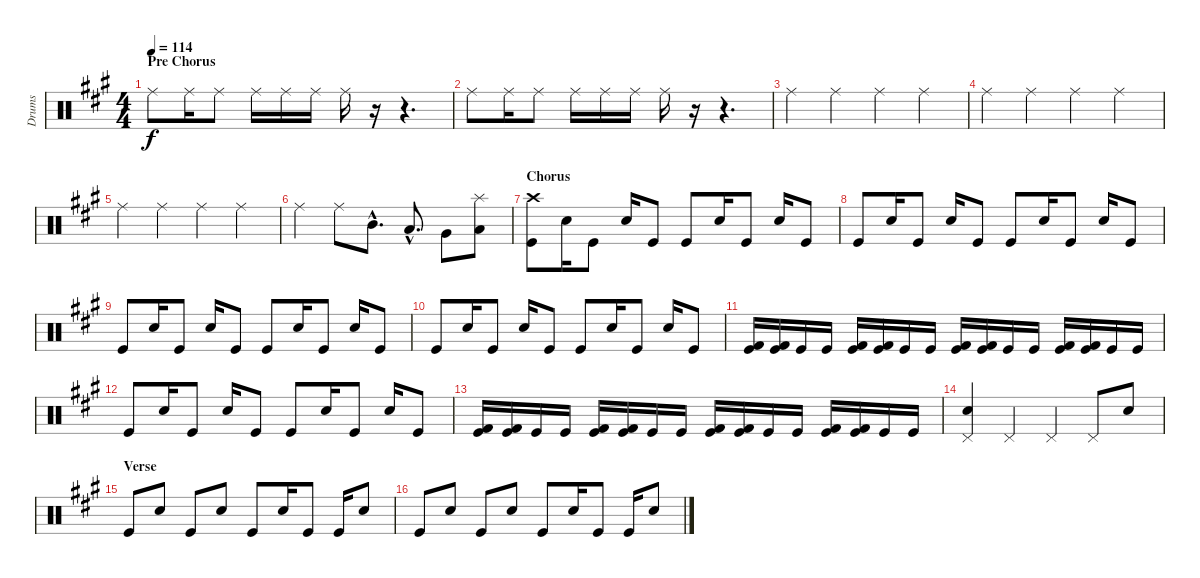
\track ("Drums" "Drums") {instrument percussion}
\staff {score}
\articulation defaults
\ts (4 4)
\section ("" "Pre Chorus")
\tempo 114
\clef neutral
\ks a "Ride (middle)".8{dy f balance 1} "Ride (middle)".16 "Ride (middle)".8 "Ride (middle)".16 "Ride (middle)".16 "Ride (middle)".16 "Ride (middle)".16
r.16 r.4{d} |
"Ride (middle)".8{balance 1} "Ride (middle)".16 "Ride (middle)".8 "Ride (middle)".16 "Ride (middle)".16 "Ride (middle)".16 "Ride (middle)".16 r.16 r.4{d} |
"Ride (middle)".4{balance 8} "Ride (middle)".4 "Ride (middle)".4 "Ride (middle)".4 |
"Ride (middle)".4 "Ride (middle)".4 "Ride (middle)".4 "Ride (middle)".4 |
"Ride (middle)".4 "Ride (middle)".4 "Ride (middle)".4 "Ride (middle)".4 |
"Ride (middle)".4 "Ride (middle)".8 "Mid Tom (hit)"{hac}.8{d} "Low Tom (hit)"{hac}.8{d} "Very Low Tom (hit)".8 ("Splash (hit)" "Low Floor Tom (hit)").8 |
\section ("" "Chorus")
("Crash high (hit)" "Kick (hit)").8 "Electric Snare (hit)".16 "Kick (hit)".8 "Electric Snare (hit)".16 "Kick (hit)".8 "Kick (hit)".8 "Electric Snare (hit)".16 "Kick (hit)".8 "Electric Snare (hit)".16 "Kick (hit)".8 |
"Kick (hit)".8 "Electric Snare (hit)".16 "Kick (hit)".8 "Electric Snare (hit)".16 "Kick (hit)".8 "Kick (hit)".8 "Electric Snare (hit)".16 "Kick (hit)".8 "Electric Snare (hit)".16 "Kick (hit)".8 |
"Kick (hit)".8 "Electric Snare (hit)".16 "Kick (hit)".8 "Electric Snare (hit)".16 "Kick (hit)".8 "Kick (hit)".8 "Electric Snare (hit)".16 "Kick (hit)".8 "Electric Snare (hit)".16 "Kick (hit)".8 |
"Kick (hit)".8 "Electric Snare (hit)".16 "Kick (hit)".8 "Electric Snare (hit)".16 "Kick (hit)".8 "Kick (hit)".8 "Electric Snare (hit)".16 "Kick (hit)".8 "Electric Snare (hit)".16 "Kick (hit)".8 |
("Kick (hit) 2" "Kick (hit)").16 ("Kick (hit) 2" "Kick (hit)").16 "Kick (hit)".16 "Kick (hit)".16 ("Kick (hit) 2" "Kick (hit)").16 ("Kick (hit) 2" "Kick (hit)").16 "Kick (hit)".16 "Kick (hit)".16 ("Kick (hit) 2" "Kick (hit)").16 ("Kick (hit) 2" "Kick (hit)").16 "Kick (hit)".16 "Kick (hit)".16 ("Kick (hit) 2" "Kick (hit)").16 ("Kick (hit) 2" "Kick (hit)").16 "Kick (hit)".16 "Kick (hit)".16 |
"Kick (hit)".8 "Electric Snare (hit)".16 "Kick (hit)".8 "Electric Snare (hit)".16 "Kick (hit)".8 "Kick (hit)".8 "Electric Snare (hit)".16 "Kick (hit)".8 "Electric Snare (hit)".16 "Kick (hit)".8 |
("Kick (hit) 2" "Kick (hit)").16 ("Kick (hit) 2" "Kick (hit)").16 "Kick (hit)".16 "Kick (hit)".16 ("Kick (hit) 2" "Kick (hit)").16 ("Kick (hit) 2" "Kick (hit)").16 "Kick (hit)".16 "Kick (hit)".16 ("Kick (hit) 2" "Kick (hit)").16 ("Kick (hit) 2" "Kick (hit)").16 "Kick (hit)".16 "Kick (hit)".16 ("Kick (hit) 2" "Kick (hit)").16 ("Kick (hit) 2" "Kick (hit)").16 "Kick (hit)".16 "Kick (hit)".16 |
("Electric Snare (hit)" "Pedal Hi-Hat (hit)").4 "Pedal Hi-Hat (hit)".4 "Pedal Hi-Hat (hit)".4 "Pedal Hi-Hat (hit)".8 "Electric Snare (hit)".8{volume 13} |
\section ("" "Verse")
"Kick (hit)".8 "Electric Snare (hit)".8 "Kick (hit)".8 "Electric Snare (hit)".8 "Kick (hit)".8 "Electric Snare (hit)".16 "Kick (hit)".8 "Kick (hit)".16 "Electric Snare (hit)".8 |
"Kick (hit)".8 "Electric Snare (hit)".8 "Kick (hit)".8 "Electric Snare (hit)".8 "Kick (hit)".8 "Electric Snare (hit)".16 "Kick (hit)".8 "Kick (hit)".16 "Electric Snare (hit)".8
